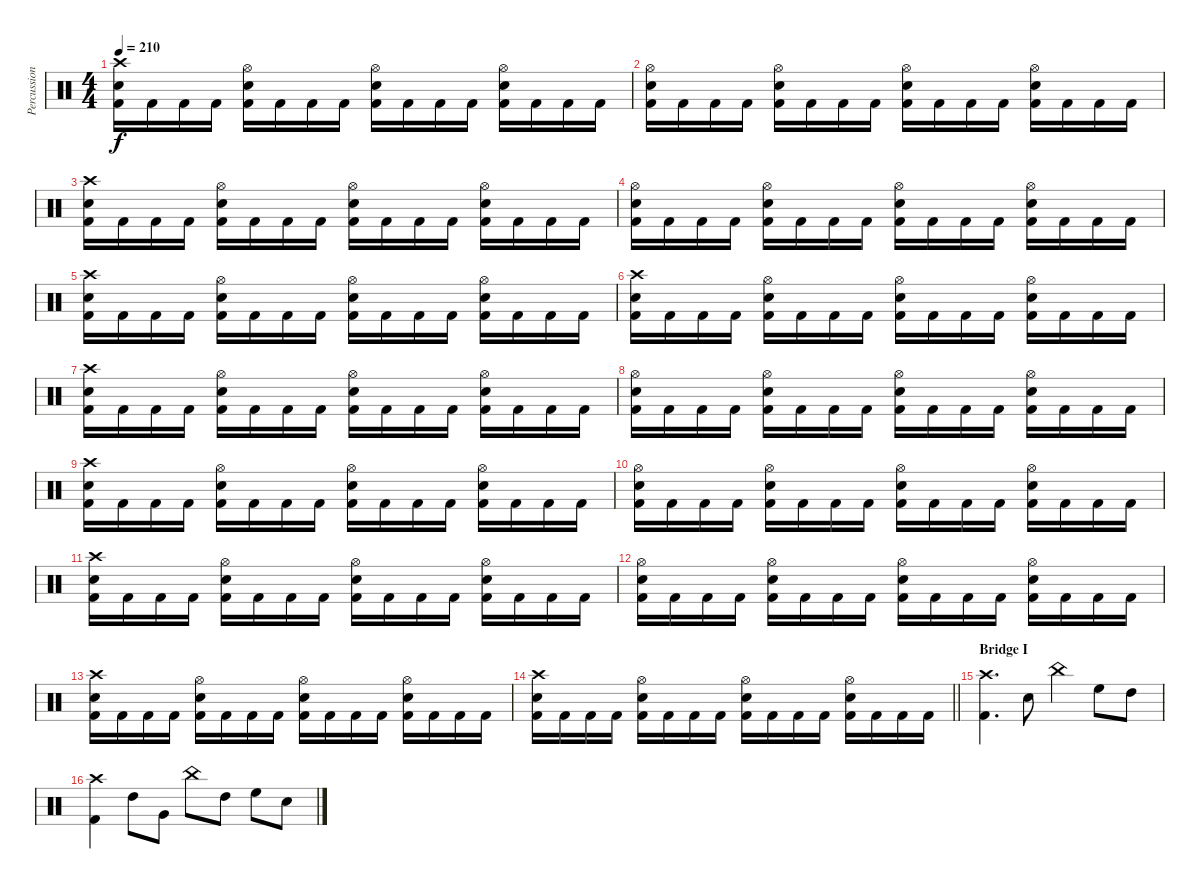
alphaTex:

\track ("Percussion" "Percussion") {instrument percussion}
\staff {score}
\articulation defaults
\ts (4 4)
\tempo 210
\clef neutral
\ks c
("Crash high (hit)" "Snare (hit) 2" "Kick (hit) 2").16{dy f} "Kick (hit) 2".16 "Kick (hit) 2".16 "Kick (hit) 2".16 ("Hi-Hat (open)" "Snare (hit) 2" "Kick (hit) 2").16 "Kick (hit) 2".16 "Kick (hit) 2".16 "Kick (hit) 2".16 ("Hi-Hat (open)" "Snare (hit) 2" "Kick (hit) 2").16 "Kick (hit) 2".16 "Kick (hit) 2".16 "Kick (hit) 2".16 ("Hi-Hat (open)" "Snare (hit) 2" "Kick (hit) 2").16 "Kick (hit) 2".16 "Kick (hit) 2".16 "Kick (hit) 2".16 |
("Hi-Hat (open)" "Snare (hit) 2" "Kick (hit) 2").16 "Kick (hit) 2".16 "Kick (hit) 2".16 "Kick (hit) 2".16 ("Hi-Hat (open)" "Snare (hit) 2" "Kick (hit) 2").16 "Kick (hit) 2".16 "Kick (hit) 2".16 "Kick (hit) 2".16 ("Hi-Hat (open)" "Snare (hit) 2" "Kick (hit) 2").16 "Kick (hit) 2".16 "Kick (hit) 2".16 "Kick (hit) 2".16 ("Hi-Hat (open)" "Snare (hit) 2" "Kick (hit) 2").16 "Kick (hit) 2".16 "Kick (hit) 2".16 "Kick (hit) 2".16 |
("Crash high (hit)" "Snare (hit) 2" "Kick (hit) 2").16 "Kick (hit) 2".16 "Kick (hit) 2".16 "Kick (hit) 2".16 ("Hi-Hat (open)" "Snare (hit) 2" "Kick (hit) 2").16 "Kick (hit) 2".16 "Kick (hit) 2".16 "Kick (hit) 2".16 ("Hi-Hat (open)" "Snare (hit) 2" "Kick (hit) 2").16 "Kick (hit) 2".16 "Kick (hit) 2".16 "Kick (hit) 2".16 ("Hi-Hat (open)" "Snare (hit) 2" "Kick (hit) 2").16 "Kick (hit) 2".16 "Kick (hit) 2".16 "Kick (hit) 2".16 |
("Hi-Hat (open)" "Snare (hit) 2" "Kick (hit) 2").16 "Kick (hit) 2".16 "Kick (hit) 2".16 "Kick (hit) 2".16 ("Hi-Hat (open)" "Snare (hit) 2" "Kick (hit) 2").16 "Kick (hit) 2".16 "Kick (hit) 2".16 "Kick (hit) 2".16 ("Hi-Hat (open)" "Snare (hit) 2" "Kick (hit) 2").16 "Kick (hit) 2".16 "Kick (hit) 2".16 "Kick (hit) 2".16 ("Hi-Hat (open)" "Snare (hit) 2" "Kick (hit) 2").16 "Kick (hit) 2".16 "Kick (hit) 2".16 "Kick (hit) 2".16 |
("Crash high (hit)" "Snare (hit) 2" "Kick (hit) 2").16 "Kick (hit) 2".16 "Kick (hit) 2".16 "Kick (hit) 2".16 ("Hi-Hat (open)" "Snare (hit) 2" "Kick (hit) 2").16 "Kick (hit) 2".16 "Kick (hit) 2".16 "Kick (hit) 2".16 ("Hi-Hat (open)" "Snare (hit) 2" "Kick (hit) 2").16 "Kick (hit) 2".16 "Kick (hit) 2".16 "Kick (hit) 2".16 ("Hi-Hat (open)" "Snare (hit) 2" "Kick (hit) 2").16 "Kick (hit) 2".16 "Kick (hit) 2".16 "Kick (hit) 2".16 |
("Crash high (hit)" "Snare (hit) 2" "Kick (hit) 2").16 "Kick (hit) 2".16 "Kick (hit) 2".16 "Kick (hit) 2".16 ("Hi-Hat (open)" "Snare (hit) 2" "Kick (hit) 2").16 "Kick (hit) 2".16 "Kick (hit) 2".16 "Kick (hit) 2".16 ("Hi-Hat (open)" "Snare (hit) 2" "Kick (hit) 2").16 "Kick (hit) 2".16 "Kick (hit) 2".16 "Kick (hit) 2".16 ("Hi-Hat (open)" "Snare (hit) 2" "Kick (hit) 2").16 "Kick (hit) 2".16 "Kick (hit) 2".16 "Kick (hit) 2".16 |
("Crash high (hit)" "Snare (hit) 2" "Kick (hit) 2").16 "Kick (hit) 2".16 "Kick (hit) 2".16 "Kick (hit) 2".16 ("Hi-Hat (open)" "Snare (hit) 2" "Kick (hit) 2").16 "Kick (hit) 2".16 "Kick (hit) 2".16 "Kick (hit) 2".16 ("Hi-Hat (open)" "Snare (hit) 2" "Kick (hit) 2").16 "Kick (hit) 2".16 "Kick (hit) 2".16 "Kick (hit) 2".16 ("Hi-Hat (open)" "Snare (hit) 2" "Kick (hit) 2").16 "Kick (hit) 2".16 "Kick (hit) 2".16 "Kick (hit) 2".16 |
("Hi-Hat (open)" "Snare (hit) 2" "Kick (hit) 2").16 "Kick (hit) 2".16 "Kick (hit) 2".16 "Kick (hit) 2".16 ("Hi-Hat (open)" "Snare (hit) 2" "Kick (hit) 2").16 "Kick (hit) 2".16 "Kick (hit) 2".16 "Kick (hit) 2".16 ("Hi-Hat (open)" "Snare (hit) 2" "Kick (hit) 2").16 "Kick (hit) 2".16 "Kick (hit) 2".16 "Kick (hit) 2".16 ("Hi-Hat (open)" "Snare (hit) 2" "Kick (hit) 2").16 "Kick (hit) 2".16 "Kick (hit) 2".16 "Kick (hit) 2".16 |
("Crash high (hit)" "Snare (hit) 2" "Kick (hit) 2").16 "Kick (hit) 2".16 "Kick (hit) 2".16 "Kick (hit) 2".16 ("Hi-Hat (open)" "Snare (hit) 2" "Kick (hit) 2").16 "Kick (hit) 2".16 "Kick (hit) 2".16 "Kick (hit) 2".16 ("Hi-Hat (open)" "Snare (hit) 2" "Kick (hit) 2").16 "Kick (hit) 2".16 "Kick (hit) 2".16 "Kick (hit) 2".16 ("Hi-Hat (open)" "Snare (hit) 2" "Kick (hit) 2").16 "Kick (hit) 2".16 "Kick (hit) 2".16 "Kick (hit) 2".16 |
("Hi-Hat (open)" "Snare (hit) 2" "Kick (hit) 2").16 "Kick (hit) 2".16 "Kick (hit) 2".16 "Kick (hit) 2".16 ("Hi-Hat (open)" "Snare (hit) 2" "Kick (hit) 2").16 "Kick (hit) 2".16 "Kick (hit) 2".16 "Kick (hit) 2".16 ("Hi-Hat (open)" "Snare (hit) 2" "Kick (hit) 2").16 "Kick (hit) 2".16 "Kick (hit) 2".16 "Kick (hit) 2".16 ("Hi-Hat (open)" "Snare (hit) 2" "Kick (hit) 2").16 "Kick (hit) 2".16 "Kick (hit) 2".16 "Kick (hit) 2".16 |
("Crash high (hit)" "Snare (hit) 2" "Kick (hit) 2").16 "Kick (hit) 2".16 "Kick (hit) 2".16 "Kick (hit) 2".16 ("Hi-Hat (open)" "Snare (hit) 2" "Kick (hit) 2").16 "Kick (hit) 2".16 "Kick (hit) 2".16 "Kick (hit) 2".16 ("Hi-Hat (open)" "Snare (hit) 2" "Kick (hit) 2").16 "Kick (hit) 2".16 "Kick (hit) 2".16 "Kick (hit) 2".16 ("Hi-Hat (open)" "Snare (hit) 2" "Kick (hit) 2").16 "Kick (hit) 2".16 "Kick (hit) 2".16 "Kick (hit) 2".16 |
("Hi-Hat (open)" "Snare (hit) 2" "Kick (hit) 2").16 "Kick (hit) 2".16 "Kick (hit) 2".16 "Kick (hit) 2".16 ("Hi-Hat (open)" "Snare (hit) 2" "Kick (hit) 2").16 "Kick (hit) 2".16 "Kick (hit) 2".16 "Kick (hit) 2".16 ("Hi-Hat (open)" "Snare (hit) 2" "Kick (hit) 2").16 "Kick (hit) 2".16 "Kick (hit) 2".16 "Kick (hit) 2".16 ("Hi-Hat (open)" "Snare (hit) 2" "Kick (hit) 2").16 "Kick (hit) 2".16 "Kick (hit) 2".16 "Kick (hit) 2".16 |
("Crash high (hit)" "Snare (hit) 2" "Kick (hit) 2").16 "Kick (hit) 2".16 "Kick (hit) 2".16 "Kick (hit) 2".16 ("Hi-Hat (open)" "Snare (hit) 2" "Kick (hit) 2").16 "Kick (hit) 2".16 "Kick (hit) 2".16 "Kick (hit) 2".16 ("Hi-Hat (open)" "Snare (hit) 2" "Kick (hit) 2").16 "Kick (hit) 2".16 "Kick (hit) 2".16 "Kick (hit) 2".16 ("Hi-Hat (open)" "Snare (hit) 2" "Kick (hit) 2").16 "Kick (hit) 2".16 "Kick (hit) 2".16 "Kick (hit) 2".16 |
\barLineRight lightlight
("Crash high (hit)" "Snare (hit) 2" "Kick (hit) 2").16 "Kick (hit) 2".16 "Kick (hit) 2".16 "Kick (hit) 2".16 ("Hi-Hat (open)" "Snare (hit) 2" "Kick (hit) 2").16 "Kick (hit) 2".16 "Kick (hit) 2".16 "Kick (hit) 2".16 ("Hi-Hat (open)" "Snare (hit) 2" "Kick (hit) 2").16 "Kick (hit) 2".16 "Kick (hit) 2".16 "Kick (hit) 2".16 ("Hi-Hat (open)" "Snare (hit) 2" "Kick (hit) 2").16 "Kick (hit) 2".16 "Kick (hit) 2".16 "Kick (hit) 2".16 |
\section ("" "Bridge I")
("Crash high (hit)" "Kick (hit) 2").4{d} "Snare (hit) 2".8 "China (hit)".4 "High Floor Tom (hit)".8 "High Tom (hit)".8 |
("Crash high (hit)" "Kick (hit) 2").4 "High Tom (hit)".8 "Very Low Tom (hit)".8 "China (hit)".8 "High Tom (hit)".8 "High Floor Tom (hit)".8 "Snare (hit) 2".8
